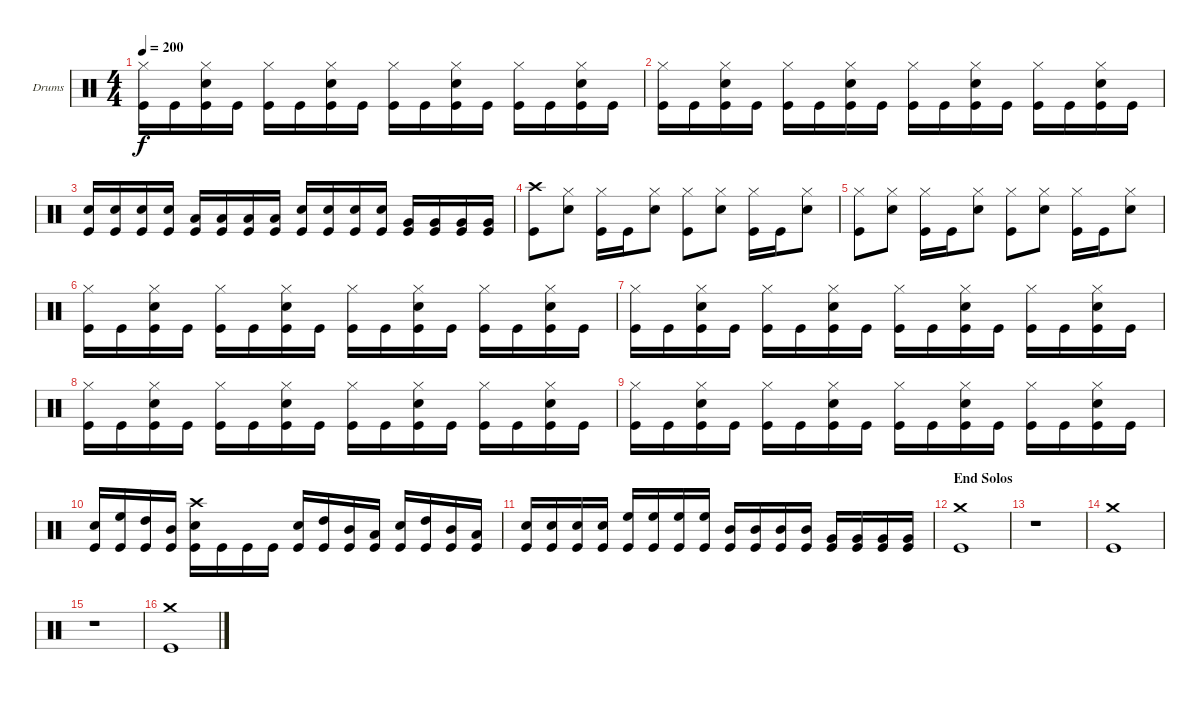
\bracketExtendMode groupsimilarinstruments
\firstSystemTrackNameOrientation horizontal
\otherSystemsTrackNameOrientation horizontal
\track ("Drumkit" "Drums") {instrument percussion}
\staff {score}
\articulation defaults
\ts (4 4)
\tempo 200
\clef neutral
\ks aminor
("Kick (hit)" "Hi-Hat (closed)").16{dy f} "Kick (hit)".16 ("Kick (hit)" "Snare (hit) 2" "Hi-Hat (closed)").16 "Kick (hit)".16 ("Kick (hit)" "Hi-Hat (closed)").16 "Kick (hit)".16 ("Kick (hit)" "Snare (hit) 2" "Hi-Hat (closed)").16 "Kick (hit)".16 ("Kick (hit)" "Hi-Hat (closed)").16 "Kick (hit)".16 ("Kick (hit)" "Snare (hit) 2" "Hi-Hat (closed)").16 "Kick (hit)".16 ("Kick (hit)" "Hi-Hat (closed)").16 "Kick (hit)".16 ("Kick (hit)" "Snare (hit) 2" "Hi-Hat (closed)").16 "Kick (hit)".16 |
("Kick (hit)" "Hi-Hat (closed)").16 "Kick (hit)".16 ("Kick (hit)" "Snare (hit) 2" "Hi-Hat (closed)").16 "Kick (hit)".16 ("Kick (hit)" "Hi-Hat (closed)").16 "Kick (hit)".16 ("Kick (hit)" "Snare (hit) 2" "Hi-Hat (closed)").16 "Kick (hit)".16 ("Kick (hit)" "Hi-Hat (closed)").16 "Kick (hit)".16 ("Kick (hit)" "Snare (hit) 2" "Hi-Hat (closed)").16 "Kick (hit)".16 ("Kick (hit)" "Hi-Hat (closed)").16 "Kick (hit)".16 ("Kick (hit)" "Snare (hit) 2" "Hi-Hat (closed)").16 "Kick (hit)".16 |
("Kick (hit)" "Snare (hit) 2").16 ("Kick (hit)" "Snare (hit) 2").16 ("Kick (hit)" "Snare (hit) 2").16 ("Kick (hit)" "Snare (hit) 2").16 ("Kick (hit)" "Low Tom (hit)").16 ("Kick (hit)" "Low Tom (hit)").16 ("Kick (hit)" "Low Tom (hit)").16 ("Kick (hit)" "Low Tom (hit)").16 ("Kick (hit)" "Snare (hit) 2").16 ("Kick (hit)" "Snare (hit) 2").16 ("Kick (hit)" "Snare (hit) 2").16 ("Kick (hit)" "Snare (hit) 2").16 ("Kick (hit)" "Very Low Tom (hit)").16 ("Kick (hit)" "Very Low Tom (hit)").16 ("Kick (hit)" "Very Low Tom (hit)").16 ("Kick (hit)" "Very Low Tom (hit)").16 |
\section ("" "")
("Kick (hit)" "Crash high (hit)").8 ("Snare (hit) 2" "Hi-Hat (closed)").8 ("Kick (hit)" "Hi-Hat (closed)").16 "Kick (hit)".16 ("Snare (hit) 2" "Hi-Hat (closed)").8 ("Kick (hit)" "Hi-Hat (closed)").8 ("Snare (hit) 2" "Hi-Hat (closed)").8 ("Kick (hit)" "Hi-Hat (closed)").16 "Kick (hit)".16 ("Snare (hit) 2" "Hi-Hat (closed)").8 |
("Kick (hit)" "Hi-Hat (closed)").8 ("Snare (hit) 2" "Hi-Hat (closed)").8 ("Kick (hit)" "Hi-Hat (closed)").16 "Kick (hit)".16 ("Snare (hit) 2" "Hi-Hat (closed)").8 ("Kick (hit)" "Hi-Hat (closed)").8 ("Snare (hit) 2" "Hi-Hat (closed)").8 ("Kick (hit)" "Hi-Hat (closed)").16 "Kick (hit)".16 ("Snare (hit) 2" "Hi-Hat (closed)").8 |
("Kick (hit)" "Hi-Hat (closed)").16 "Kick (hit)".16 ("Kick (hit)" "Snare (hit) 2" "Hi-Hat (closed)").16 "Kick (hit)".16 ("Kick (hit)" "Hi-Hat (closed)").16 "Kick (hit)".16 ("Kick (hit)" "Snare (hit) 2" "Hi-Hat (closed)").16 "Kick (hit)".16 ("Kick (hit)" "Hi-Hat (closed)").16 "Kick (hit)".16 ("Kick (hit)" "Snare (hit) 2" "Hi-Hat (closed)").16 "Kick (hit)".16 ("Kick (hit)" "Hi-Hat (closed)").16 "Kick (hit)".16 ("Kick (hit)" "Snare (hit) 2" "Hi-Hat (closed)").16 "Kick (hit)".16 |
("Kick (hit)" "Hi-Hat (closed)").16 "Kick (hit)".16 ("Kick (hit)" "Snare (hit) 2" "Hi-Hat (closed)").16 "Kick (hit)".16 ("Kick (hit)" "Hi-Hat (closed)").16 "Kick (hit)".16 ("Kick (hit)" "Snare (hit) 2" "Hi-Hat (closed)").16 "Kick (hit)".16 ("Kick (hit)" "Hi-Hat (closed)").16 "Kick (hit)".16 ("Kick (hit)" "Snare (hit) 2" "Hi-Hat (closed)").16 "Kick (hit)".16 ("Kick (hit)" "Hi-Hat (closed)").16 "Kick (hit)".16 ("Kick (hit)" "Snare (hit) 2" "Hi-Hat (closed)").16 "Kick (hit)".16 |
("Kick (hit)" "Hi-Hat (closed)").16 "Kick (hit)".16 ("Kick (hit)" "Snare (hit) 2" "Hi-Hat (closed)").16 "Kick (hit)".16 ("Kick (hit)" "Hi-Hat (closed)").16 "Kick (hit)".16 ("Kick (hit)" "Snare (hit) 2" "Hi-Hat (closed)").16 "Kick (hit)".16 ("Kick (hit)" "Hi-Hat (closed)").16 "Kick (hit)".16 ("Kick (hit)" "Snare (hit) 2" "Hi-Hat (closed)").16 "Kick (hit)".16 ("Kick (hit)" "Hi-Hat (closed)").16 "Kick (hit)".16 ("Kick (hit)" "Snare (hit) 2" "Hi-Hat (closed)").16 "Kick (hit)".16 |
("Kick (hit)" "Hi-Hat (closed)").16 "Kick (hit)".16 ("Kick (hit)" "Snare (hit) 2" "Hi-Hat (closed)").16 "Kick (hit)".16 ("Kick (hit)" "Hi-Hat (closed)").16 "Kick (hit)".16 ("Kick (hit)" "Snare (hit) 2" "Hi-Hat (closed)").16 "Kick (hit)".16 ("Kick (hit)" "Hi-Hat (closed)").16 "Kick (hit)".16 ("Kick (hit)" "Snare (hit) 2" "Hi-Hat (closed)").16 "Kick (hit)".16 ("Kick (hit)" "Hi-Hat (closed)").16 "Kick (hit)".16 ("Kick (hit)" "Snare (hit) 2" "Hi-Hat (closed)").16 "Kick (hit)".16 |
("Kick (hit)" "Snare (hit) 2").16 ("Kick (hit)" "High Floor Tom (hit)").16 ("Kick (hit)" "High Tom (hit)").16 ("Kick (hit)" "Mid Tom (hit)").16 ("Kick (hit)" "Snare (hit) 2" "Crash high (hit)").16 "Kick (hit)".16 "Kick (hit)".16 "Kick (hit)".16 ("Kick (hit)" "Snare (hit) 2").16 ("Kick (hit)" "High Tom (hit)").16 ("Kick (hit)" "Mid Tom (hit)").16 ("Kick (hit)" "Low Tom (hit)").16 ("Kick (hit)" "Snare (hit) 2").16 ("Kick (hit)" "High Tom (hit)").16 ("Kick (hit)" "Mid Tom (hit)").16 ("Kick (hit)" "Low Tom (hit)").16 |
("Kick (hit)" "Snare (hit) 2").16 ("Kick (hit)" "Snare (hit) 2").16 ("Kick (hit)" "Snare (hit) 2").16 ("Kick (hit)" "Snare (hit) 2").16 ("Kick (hit)" "High Floor Tom (hit)").16 ("Kick (hit)" "High Floor Tom (hit)").16 ("Kick (hit)" "High Floor Tom (hit)").16 ("Kick (hit)" "High Floor Tom (hit)").16 ("Kick (hit)" "Mid Tom (hit)").16 ("Kick (hit)" "Mid Tom (hit)").16 ("Kick (hit)" "Mid Tom (hit)").16 ("Kick (hit)" "Mid Tom (hit)").16 ("Kick (hit)" "Very Low Tom (hit)").16 ("Kick (hit)" "Very Low Tom (hit)").16 ("Kick (hit)" "Very Low Tom (hit)").16 ("Kick (hit)" "Very Low Tom (hit)").16 |
\section ("" "End Solos")
("Kick (hit)" "Crash medium (hit)").1 |
r.1 |
("Kick (hit)" "Crash medium (hit)").1 |
r.1 |
("Kick (hit)" "Crash medium (hit)").1
